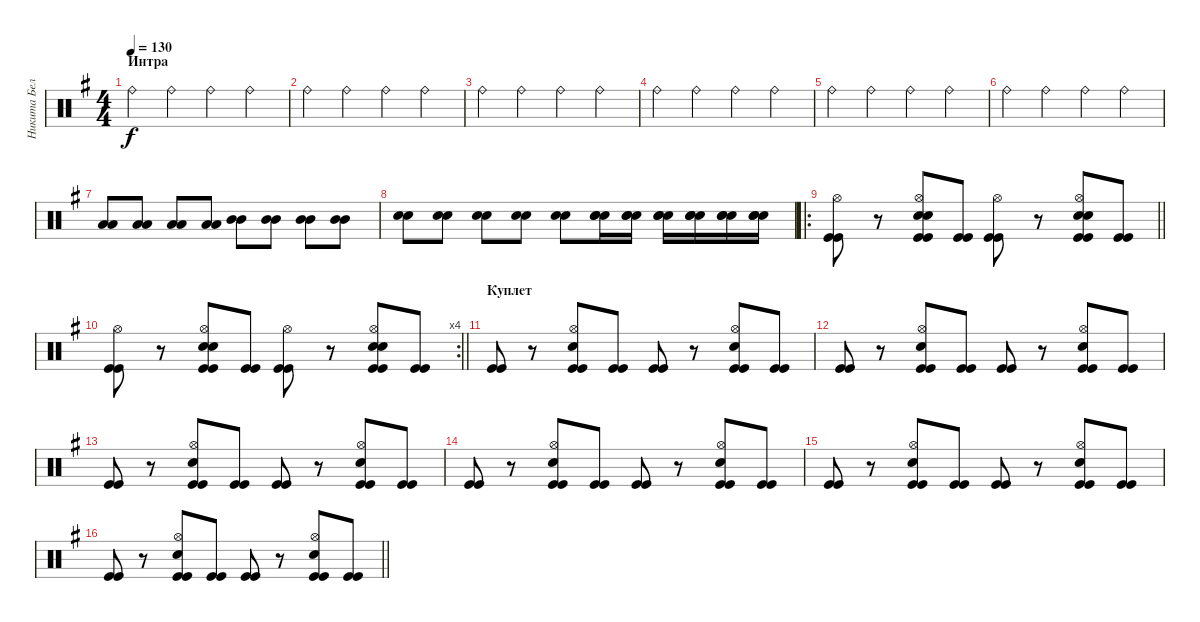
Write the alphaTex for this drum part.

\track ("Никита Белозёров" "Никита Бел") {instrument percussion}
\staff {score}
\articulation defaults
\ts (4 4)
\section ("" "Интра")
\tempo 130
\clef neutral
\ks eminor "Ride (bell)".4{dy f} "Ride (bell)".4 "Ride (bell)".4 "Ride (bell)".4
|
"Ride (bell)".4 "Ride (bell)".4 "Ride (bell)".4 "Ride (bell)".4 |
"Ride (bell)".4 "Ride (bell)".4 "Ride (bell)".4 "Ride (bell)".4 |
"Ride (bell)".4 "Ride (bell)".4 "Ride (bell)".4 "Ride (bell)".4 |
"Ride (bell)".4 "Ride (bell)".4 "Ride (bell)".4 "Ride (bell)".4 |
"Ride (bell)".4 "Ride (bell)".4 "Ride (bell)".4 "Ride (bell)".4 |
("Low Tom (hit)" "Low Tom (hit)").8 ("Low Tom (hit)" "Low Tom (hit)").8 ("Low Tom (hit)" "Low Tom (hit)").8 ("Low Tom (hit)" "Low Tom (hit)").8 ("Mid Tom (hit)" "Mid Tom (hit)").8 ("Mid Tom (hit)" "Mid Tom (hit)").8 ("Mid Tom (hit)" "Mid Tom (hit)").8 ("Mid Tom (hit)" "Mid Tom (hit)").8 |
("Electric Snare (hit)" "Electric Snare (hit)").8 ("Electric Snare (hit)" "Electric Snare (hit)").8 ("Electric Snare (hit)" "Electric Snare (hit)").8 ("Electric Snare (hit)" "Electric Snare (hit)").8 ("Electric Snare (hit)" "Electric Snare (hit)").8 ("Electric Snare (hit)" "Metronome (bell)" "Snare (hit) 2").16 ("Electric Snare (hit)" "Metronome (bell)" "Snare (hit) 2").16 ("Electric Snare (hit)" "Metronome (bell)" "Snare (hit) 2").16 ("Electric Snare (hit)" "Metronome (bell)" "Snare (hit) 2").16 ("Electric Snare (hit)" "Metronome (bell)" "Snare (hit) 2").16 ("Electric Snare (hit)" "Metronome (bell)" "Snare (hit) 2").16 |
\ro
\barLineRight lightlight
("Hi-Hat (open)" "Kick (hit)" "Kick (hit)").8 r.8 ("Hi-Hat (open)" "Kick (hit)" "Kick (hit)" "Electric Snare (hit)" "Snare (hit) 2").8 ("Kick (hit)" "Kick (hit)").8 ("Hi-Hat (open)" "Kick (hit)" "Kick (hit)").8 r.8 ("Hi-Hat (open)" "Kick (hit)" "Kick (hit)" "Electric Snare (hit)" "Snare (hit) 2").8 ("Kick (hit)" "Kick (hit)").8 |
\rc 4
\barLineRight lightlight
("Hi-Hat (open)" "Kick (hit)" "Kick (hit)").8 r.8 ("Hi-Hat (open)" "Kick (hit)" "Kick (hit)" "Electric Snare (hit)" "Snare (hit) 2").8 ("Kick (hit)" "Kick (hit)").8 ("Hi-Hat (open)" "Kick (hit)" "Kick (hit)").8 r.8 ("Hi-Hat (open)" "Kick (hit)" "Kick (hit)" "Electric Snare (hit)" "Snare (hit) 2").8 ("Kick (hit)" "Kick (hit)").8 |
\section ("" "Куплет")
("Kick (hit)" "Kick (hit)").8 r.8 ("Hi-Hat (open)" "Kick (hit)" "Kick (hit)" "Snare (hit) 2").8 ("Kick (hit)" "Kick (hit)").8 ("Kick (hit)" "Kick (hit)").8 r.8 ("Hi-Hat (open)" "Kick (hit)" "Kick (hit)" "Snare (hit) 2").8 ("Kick (hit)" "Kick (hit)").8 |
("Kick (hit)" "Kick (hit)").8 r.8 ("Hi-Hat (open)" "Kick (hit)" "Kick (hit)" "Snare (hit) 2").8 ("Kick (hit)" "Kick (hit)").8 ("Kick (hit)" "Kick (hit)").8 r.8 ("Hi-Hat (open)" "Kick (hit)" "Kick (hit)" "Snare (hit) 2").8 ("Kick (hit)" "Kick (hit)").8 |
("Kick (hit)" "Kick (hit)").8 r.8 ("Hi-Hat (open)" "Kick (hit)" "Kick (hit)" "Snare (hit) 2").8 ("Kick (hit)" "Kick (hit)").8 ("Kick (hit)" "Kick (hit)").8 r.8 ("Hi-Hat (open)" "Kick (hit)" "Kick (hit)" "Snare (hit) 2").8 ("Kick (hit)" "Kick (hit)").8 |
("Kick (hit)" "Kick (hit)").8 r.8 ("Hi-Hat (open)" "Kick (hit)" "Kick (hit)" "Snare (hit) 2").8 ("Kick (hit)" "Kick (hit)").8 ("Kick (hit)" "Kick (hit)").8 r.8 ("Hi-Hat (open)" "Kick (hit)" "Kick (hit)" "Snare (hit) 2").8 ("Kick (hit)" "Kick (hit)").8 |
("Kick (hit)" "Kick (hit)").8 r.8 ("Hi-Hat (open)" "Kick (hit)" "Kick (hit)" "Snare (hit) 2").8 ("Kick (hit)" "Kick (hit)").8 ("Kick (hit)" "Kick (hit)").8 r.8 ("Hi-Hat (open)" "Kick (hit)" "Kick (hit)" "Snare (hit) 2").8 ("Kick (hit)" "Kick (hit)").8 |
\barLineRight lightlight
("Kick (hit)" "Kick (hit)").8 r.8 ("Hi-Hat (open)" "Kick (hit)" "Kick (hit)" "Snare (hit) 2").8 ("Kick (hit)" "Kick (hit)").8 ("Kick (hit)" "Kick (hit)").8 r.8 ("Hi-Hat (open)" "Kick (hit)" "Kick (hit)" "Snare (hit) 2").8 ("Kick (hit)" "Kick (hit)").8
